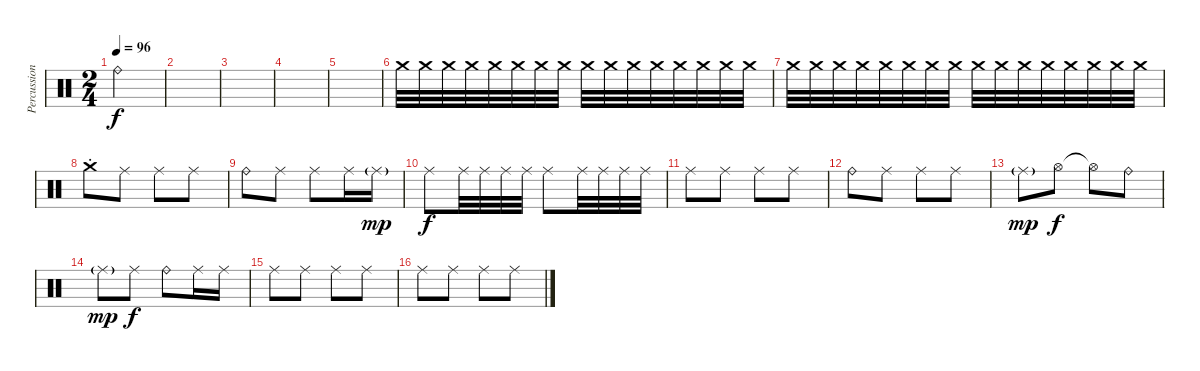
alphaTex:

\track ("Percussion" "Percussion") {instrument percussion}
\staff {score}
\articulation defaults
\ts (2 4)
\tempo 96
\clef neutral
\ks c "Ride (bell)".2{dy f}
|
|
|
|
|
"Crash medium (hit)".32{volume 13} "Crash medium (hit)".32 "Crash medium (hit)".32 "Crash medium (hit)".32 "Crash medium (hit)".32 "Crash medium (hit)".32 "Crash medium (hit)".32 "Crash medium (hit)".32 "Crash medium (hit)".32 "Crash medium (hit)".32 "Crash medium (hit)".32 "Crash medium (hit)".32 "Crash medium (hit)".32 "Crash medium (hit)".32 "Crash medium (hit)".32 "Crash medium (hit)".32 |
"Crash medium (hit)".32 "Crash medium (hit)".32 "Crash medium (hit)".32 "Crash medium (hit)".32 "Crash medium (hit)".32 "Crash medium (hit)".32 "Crash medium (hit)".32 "Crash medium (hit)".32 "Crash medium (hit)".32 "Crash medium (hit)".32 "Crash medium (hit)".32 "Crash medium (hit)".32 "Crash medium (hit)".32 "Crash medium (hit)".32 "Crash medium (hit)".32 "Crash medium (hit)".32 |
"Crash medium (hit)"{st}.8{volume 11} "Ride (middle)".8 "Ride (middle)".8 "Ride (middle)".8 |
"Ride (bell)".8 "Ride (middle)".8 "Ride (middle)".8 "Ride (middle)".16 "Ride (middle)"{g}.16{dy mp} |
"Ride (middle)".8{dy f} "Ride (middle)".32 "Ride (middle)".32 "Ride (middle)".32 "Ride (middle)".32 "Ride (middle)".8 "Ride (middle)".32 "Ride (middle)".32 "Ride (middle)".32 "Ride (middle)".32 |
"Ride (middle)".8 "Ride (middle)".8 "Ride (middle)".8 "Ride (middle)".8 |
"Ride (bell)".8 "Ride (middle)".8 "Ride (middle)".8 "Ride (middle)".8 |
"Ride (middle)"{g}.8{dy mp} "Hi-Hat (open)".8{dy f} "Hi-Hat (open)"{t}.8 "Ride (bell)".8 |
"Ride (middle)"{g}.8{dy mp} "Ride (middle)".8{dy f} "Ride (bell)".8 "Ride (middle)".16 "Ride (middle)".16 |
"Ride (middle)".8 "Ride (middle)".8 "Ride (middle)".8 "Ride (middle)".8 |
"Ride (middle)".8 "Ride (middle)".8 "Ride (middle)".8 "Ride (middle)".8
